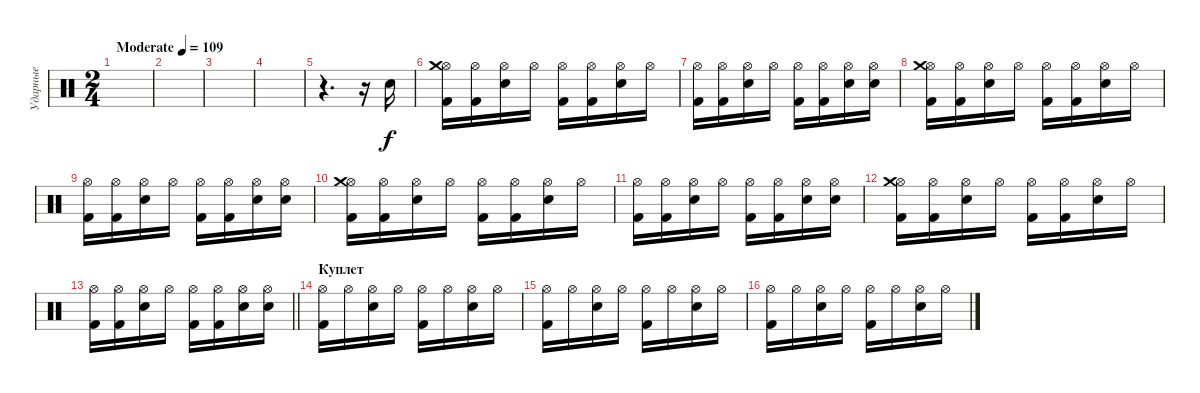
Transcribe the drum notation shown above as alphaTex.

\track ("Ударные" "Ударные") {instrument percussion}
\staff {score}
\articulation defaults
\ts (2 4)
\tempo (109 "Moderate")
\clef neutral
\ks c
|
|
|
|
r.4{d} r.16 "Snare (hit) 2".16 |
("Kick (hit) 2" "Hi-Hat (open)" "Crash medium (hit)").16 ("Kick (hit) 2" "Hi-Hat (open)").16 ("Electric Snare (hit)" "Hi-Hat (open)").16 "Hi-Hat (open)".16 ("Kick (hit) 2" "Hi-Hat (open)").16 ("Kick (hit) 2" "Hi-Hat (open)").16 ("Electric Snare (hit)" "Hi-Hat (open)").16 "Hi-Hat (open)".16 |
("Kick (hit) 2" "Hi-Hat (open)").16 ("Kick (hit) 2" "Hi-Hat (open)").16 ("Electric Snare (hit)" "Hi-Hat (open)").16 "Hi-Hat (open)".16 ("Kick (hit) 2" "Hi-Hat (open)").16 ("Kick (hit) 2" "Hi-Hat (open)").16 ("Electric Snare (hit)" "Hi-Hat (open)").16 ("Electric Snare (hit)" "Hi-Hat (open)").16 |
("Kick (hit) 2" "Hi-Hat (open)" "Crash medium (hit)").16 ("Kick (hit) 2" "Hi-Hat (open)").16 ("Electric Snare (hit)" "Hi-Hat (open)").16 "Hi-Hat (open)".16 ("Kick (hit) 2" "Hi-Hat (open)").16 ("Kick (hit) 2" "Hi-Hat (open)").16 ("Electric Snare (hit)" "Hi-Hat (open)").16 "Hi-Hat (open)".16 |
("Kick (hit) 2" "Hi-Hat (open)").16 ("Kick (hit) 2" "Hi-Hat (open)").16 ("Electric Snare (hit)" "Hi-Hat (open)").16 "Hi-Hat (open)".16 ("Kick (hit) 2" "Hi-Hat (open)").16 ("Kick (hit) 2" "Hi-Hat (open)").16 ("Electric Snare (hit)" "Hi-Hat (open)").16 ("Electric Snare (hit)" "Hi-Hat (open)").16 |
("Kick (hit) 2" "Hi-Hat (open)" "Crash medium (hit)").16 ("Kick (hit) 2" "Hi-Hat (open)").16 ("Electric Snare (hit)" "Hi-Hat (open)").16 "Hi-Hat (open)".16 ("Kick (hit) 2" "Hi-Hat (open)").16 ("Kick (hit) 2" "Hi-Hat (open)").16 ("Electric Snare (hit)" "Hi-Hat (open)").16 "Hi-Hat (open)".16 |
("Kick (hit) 2" "Hi-Hat (open)").16 ("Kick (hit) 2" "Hi-Hat (open)").16 ("Electric Snare (hit)" "Hi-Hat (open)").16 "Hi-Hat (open)".16 ("Kick (hit) 2" "Hi-Hat (open)").16 ("Kick (hit) 2" "Hi-Hat (open)").16 ("Electric Snare (hit)" "Hi-Hat (open)").16 ("Electric Snare (hit)" "Hi-Hat (open)").16 |
("Kick (hit) 2" "Hi-Hat (open)" "Crash medium (hit)").16 ("Kick (hit) 2" "Hi-Hat (open)").16 ("Electric Snare (hit)" "Hi-Hat (open)").16 "Hi-Hat (open)".16 ("Kick (hit) 2" "Hi-Hat (open)").16 ("Kick (hit) 2" "Hi-Hat (open)").16 ("Electric Snare (hit)" "Hi-Hat (open)").16 "Hi-Hat (open)".16 |
\barLineRight lightlight
("Kick (hit) 2" "Hi-Hat (open)").16 ("Kick (hit) 2" "Hi-Hat (open)").16 ("Electric Snare (hit)" "Hi-Hat (open)").16 "Hi-Hat (open)".16 ("Kick (hit) 2" "Hi-Hat (open)").16 ("Kick (hit) 2" "Hi-Hat (open)").16 ("Electric Snare (hit)" "Hi-Hat (open)").16 ("Electric Snare (hit)" "Hi-Hat (open)").16 |
\section ("" "Куплет")
("Kick (hit) 2" "Hi-Hat (open)").16 "Hi-Hat (open)".16 ("Electric Snare (hit)" "Hi-Hat (open)").16 "Hi-Hat (open)".16 ("Kick (hit) 2" "Hi-Hat (open)").16 "Hi-Hat (open)".16 ("Electric Snare (hit)" "Hi-Hat (open)").16 "Hi-Hat (open)".16 |
("Kick (hit) 2" "Hi-Hat (open)").16 "Hi-Hat (open)".16 ("Electric Snare (hit)" "Hi-Hat (open)").16 "Hi-Hat (open)".16 ("Kick (hit) 2" "Hi-Hat (open)").16 "Hi-Hat (open)".16 ("Electric Snare (hit)" "Hi-Hat (open)").16 "Hi-Hat (open)".16 |
("Kick (hit) 2" "Hi-Hat (open)").16 "Hi-Hat (open)".16 ("Electric Snare (hit)" "Hi-Hat (open)").16 "Hi-Hat (open)".16 ("Kick (hit) 2" "Hi-Hat (open)").16 "Hi-Hat (open)".16 ("Electric Snare (hit)" "Hi-Hat (open)").16 "Hi-Hat (open)".16
